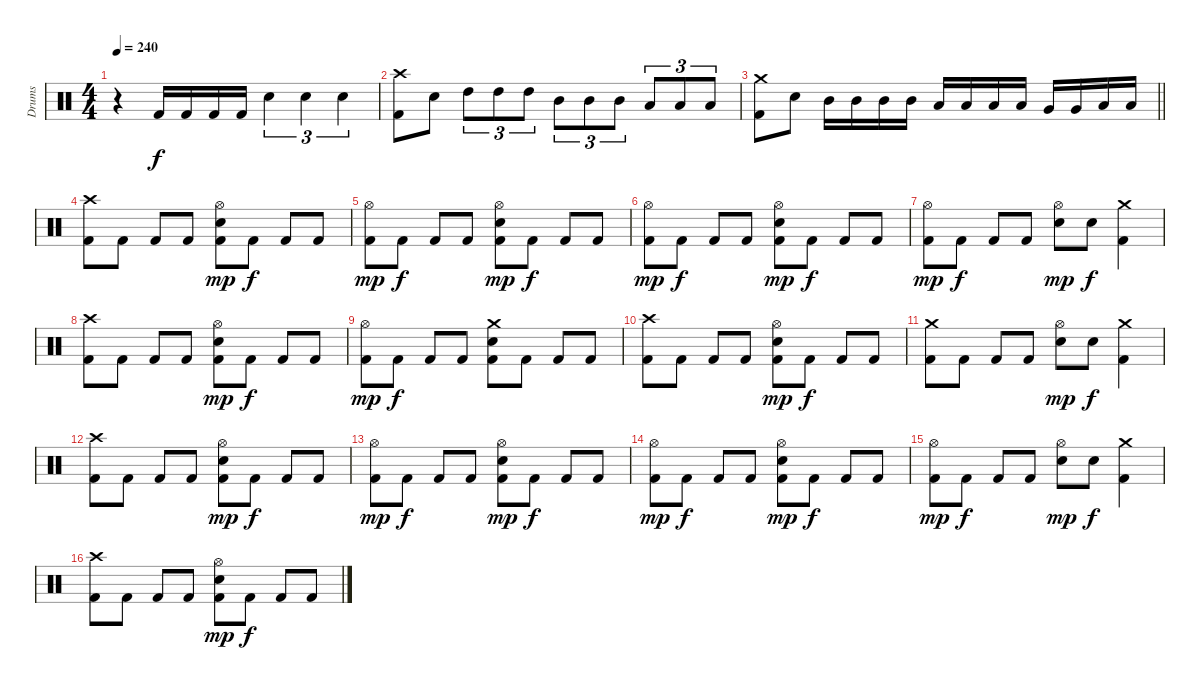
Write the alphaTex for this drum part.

\track ("Drums" "Drums") {instrument percussion}
\staff {score}
\articulation defaults
\ts (4 4)
\tempo 240
\clef neutral
\ks c
r.4{dy f} "Kick (hit) 2".16 "Kick (hit) 2".16 "Kick (hit) 2".16 "Kick (hit) 2".16 "Snare (hit) 2".4{tu (3 2)} "Snare (hit) 2".4{tu (3 2)} "Snare (hit) 2".4{tu (3 2)} |
("Crash high (hit)" "Kick (hit) 2").8 "Snare (hit) 2".8 "High Tom (hit)".8{tu (3 2)} "High Tom (hit)".8{tu (3 2)} "High Tom (hit)".8{tu (3 2)} "Mid Tom (hit)".8{tu (3 2)} "Mid Tom (hit)".8{tu (3 2)} "Mid Tom (hit)".8{tu (3 2)} "Low Tom (hit)".8{tu (3 2)} "Low Tom (hit)".8{tu (3 2)} "Low Tom (hit)".8{tu (3 2)} |
\barLineRight lightlight
("Crash medium (hit)" "Kick (hit) 2").8 "Snare (hit) 2".8 "Mid Tom (hit)".16 "Mid Tom (hit)".16 "Mid Tom (hit)".16 "Mid Tom (hit)".16 "Low Tom (hit)".16 "Low Tom (hit)".16 "Low Tom (hit)".16 "Low Tom (hit)".16 "Very Low Tom (hit)".16 "Very Low Tom (hit)".16 "Low Floor Tom (hit)".16 "Low Floor Tom (hit)".16 |
\section ("" "")
("Crash high (hit)" "Kick (hit) 2").8 "Kick (hit) 2".8 "Kick (hit) 2".8 "Kick (hit) 2".8 ("Hi-Hat (open)" "Snare (hit) 2" "Kick (hit) 2").8{dy mp} "Kick (hit) 2".8{dy f} "Kick (hit) 2".8 "Kick (hit) 2".8 |
("Hi-Hat (open)" "Kick (hit) 2").8{dy mp} "Kick (hit) 2".8{dy f} "Kick (hit) 2".8 "Kick (hit) 2".8 ("Hi-Hat (open)" "Snare (hit) 2" "Kick (hit) 2").8{dy mp} "Kick (hit) 2".8{dy f} "Kick (hit) 2".8 "Kick (hit) 2".8 |
("Hi-Hat (open)" "Kick (hit) 2").8{dy mp} "Kick (hit) 2".8{dy f} "Kick (hit) 2".8 "Kick (hit) 2".8 ("Hi-Hat (open)" "Snare (hit) 2" "Kick (hit) 2").8{dy mp} "Kick (hit) 2".8{dy f} "Kick (hit) 2".8 "Kick (hit) 2".8 |
("Hi-Hat (open)" "Kick (hit) 2").8{dy mp} "Kick (hit) 2".8{dy f} "Kick (hit) 2".8 "Kick (hit) 2".8 ("Hi-Hat (open)" "Snare (hit) 2").8{dy mp} "Snare (hit) 2".8{dy f} ("Crash medium (hit)" "Kick (hit) 2").4 |
("Crash high (hit)" "Kick (hit) 2").8 "Kick (hit) 2".8 "Kick (hit) 2".8 "Kick (hit) 2".8 ("Hi-Hat (open)" "Snare (hit) 2" "Kick (hit) 2").8{dy mp} "Kick (hit) 2".8{dy f} "Kick (hit) 2".8 "Kick (hit) 2".8 |
("Hi-Hat (open)" "Kick (hit) 2").8{dy mp} "Kick (hit) 2".8{dy f} "Kick (hit) 2".8 "Kick (hit) 2".8 ("Crash medium (hit)" "Snare (hit) 2" "Kick (hit) 2").8 "Kick (hit) 2".8 "Kick (hit) 2".8 "Kick (hit) 2".8 |
("Crash high (hit)" "Kick (hit) 2").8 "Kick (hit) 2".8 "Kick (hit) 2".8 "Kick (hit) 2".8 ("Hi-Hat (open)" "Snare (hit) 2" "Kick (hit) 2").8{dy mp} "Kick (hit) 2".8{dy f} "Kick (hit) 2".8 "Kick (hit) 2".8 |
("Crash medium (hit)" "Kick (hit) 2").8 "Kick (hit) 2".8 "Kick (hit) 2".8 "Kick (hit) 2".8 ("Hi-Hat (open)" "Snare (hit) 2").8{dy mp} "Snare (hit) 2".8{dy f} ("Crash medium (hit)" "Kick (hit) 2").4 |
("Crash high (hit)" "Kick (hit) 2").8 "Kick (hit) 2".8 "Kick (hit) 2".8 "Kick (hit) 2".8 ("Hi-Hat (open)" "Snare (hit) 2" "Kick (hit) 2").8{dy mp} "Kick (hit) 2".8{dy f} "Kick (hit) 2".8 "Kick (hit) 2".8 |
("Hi-Hat (open)" "Kick (hit) 2").8{dy mp} "Kick (hit) 2".8{dy f} "Kick (hit) 2".8 "Kick (hit) 2".8 ("Hi-Hat (open)" "Snare (hit) 2" "Kick (hit) 2").8{dy mp} "Kick (hit) 2".8{dy f} "Kick (hit) 2".8 "Kick (hit) 2".8 |
("Hi-Hat (open)" "Kick (hit) 2").8{dy mp} "Kick (hit) 2".8{dy f} "Kick (hit) 2".8 "Kick (hit) 2".8 ("Hi-Hat (open)" "Snare (hit) 2" "Kick (hit) 2").8{dy mp} "Kick (hit) 2".8{dy f} "Kick (hit) 2".8 "Kick (hit) 2".8 |
("Hi-Hat (open)" "Kick (hit) 2").8{dy mp} "Kick (hit) 2".8{dy f} "Kick (hit) 2".8 "Kick (hit) 2".8 ("Hi-Hat (open)" "Snare (hit) 2").8{dy mp} "Snare (hit) 2".8{dy f} ("Crash medium (hit)" "Kick (hit) 2").4 |
("Crash high (hit)" "Kick (hit) 2").8 "Kick (hit) 2".8 "Kick (hit) 2".8 "Kick (hit) 2".8 ("Hi-Hat (open)" "Snare (hit) 2" "Kick (hit) 2").8{dy mp} "Kick (hit) 2".8{dy f} "Kick (hit) 2".8 "Kick (hit) 2".8
